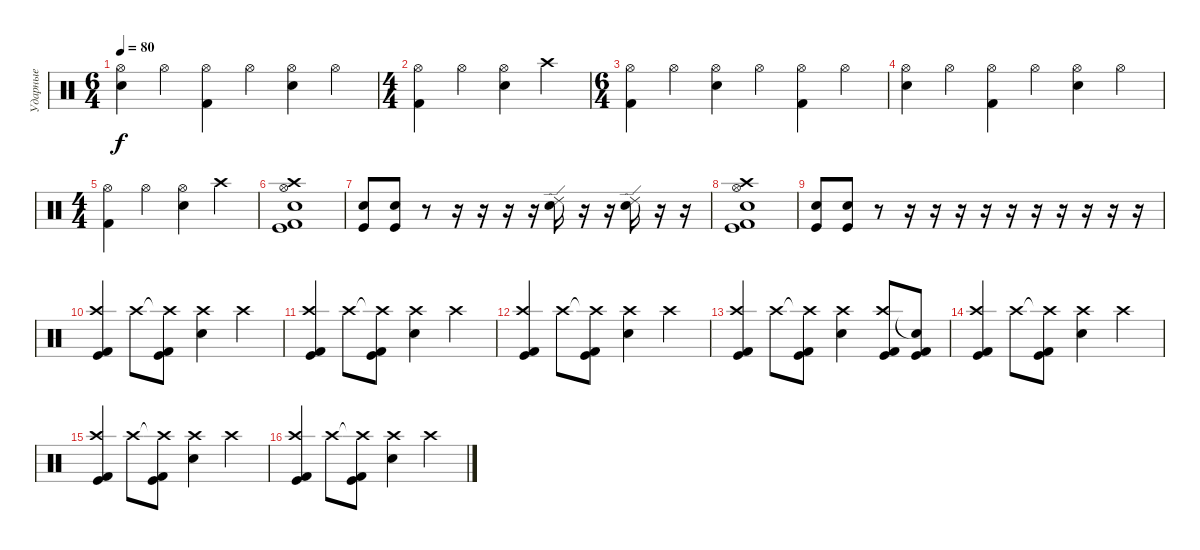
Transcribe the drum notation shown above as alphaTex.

\track ("Ударные" "Ударные") {instrument percussion}
\staff {score}
\articulation defaults
\ts (6 4)
\tempo 80
\clef neutral
\ks c
("Hi-Hat (open)" "Electric Snare (hit)").4{dy f} "Hi-Hat (open)".4 ("Hi-Hat (open)" "Kick (hit) 2").4 "Hi-Hat (open)".4 ("Hi-Hat (open)" "Electric Snare (hit)").4 "Hi-Hat (open)".4 |
\ts (4 4)
("Hi-Hat (open)" "Kick (hit) 2").4 "Hi-Hat (open)".4 ("Hi-Hat (open)" "Electric Snare (hit)").4 "Crash high (hit)".4 |
\ts (6 4)
("Hi-Hat (open)" "Kick (hit) 2").4 "Hi-Hat (open)".4 ("Hi-Hat (open)" "Electric Snare (hit)").4 "Hi-Hat (open)".4 ("Hi-Hat (open)" "Kick (hit) 2").4 "Hi-Hat (open)".4 |
("Hi-Hat (open)" "Electric Snare (hit)").4 "Hi-Hat (open)".4 ("Hi-Hat (open)" "Kick (hit) 2").4 "Hi-Hat (open)".4 ("Hi-Hat (open)" "Electric Snare (hit)").4 "Hi-Hat (open)".4 |
\ts (4 4)
("Hi-Hat (open)" "Kick (hit) 2").4 "Hi-Hat (open)".4 ("Hi-Hat (open)" "Electric Snare (hit)").4 "Crash high (hit)".4 |
("Hi-Hat (open)" "Crash high (hit)" "Electric Snare (hit)" "Kick (hit)" "Kick (hit) 2").1 |
("Snare (hit) 2" "Kick (hit)").8 ("Snare (hit) 2" "Kick (hit)").8 r.8 r.16 r.16 r.16 r.16 ("Ride (edge) 2" "Electric Snare (hit)").16 r.16 r.16 ("Ride (edge) 2" "Electric Snare (hit)").16 r.16 r.16 |
("Hi-Hat (open)" "Crash high (hit)" "Electric Snare (hit)" "Kick (hit)" "Kick (hit) 2").1 |
("Snare (hit) 2" "Kick (hit)").8 ("Snare (hit) 2" "Kick (hit)").8 r.8 r.16 r.16 r.16 r.16 r.16 r.16 r.16 r.16 r.16 r.16 |
("Crash high (hit)" "Kick (hit)" "Kick (hit) 2").4 "Crash high (hit)".8 ("Crash high (hit)"{t} "Kick (hit)" "Kick (hit) 2").8 ("Crash high (hit)" "Electric Snare (hit)").4 "Crash high (hit)".4 |
("Crash high (hit)" "Kick (hit)" "Kick (hit) 2").4 "Crash high (hit)".8 ("Crash high (hit)"{t} "Kick (hit)" "Kick (hit) 2").8 ("Crash high (hit)" "Electric Snare (hit)").4 "Crash high (hit)".4 |
("Crash high (hit)" "Kick (hit)" "Kick (hit) 2").4 "Crash high (hit)".8 ("Crash high (hit)"{t} "Kick (hit)" "Kick (hit) 2").8 ("Crash high (hit)" "Electric Snare (hit)").4 "Crash high (hit)".4 |
("Crash high (hit)" "Kick (hit)" "Kick (hit) 2").4 "Crash high (hit)".8 ("Crash high (hit)"{t} "Kick (hit)" "Kick (hit) 2").8 ("Crash high (hit)" "Electric Snare (hit)").4 ("Crash high (hit)" "Kick (hit)" "Kick (hit) 2").8 ("Snare (hit)"{t} "Kick (hit)" "Kick (hit) 2").8 |
("Crash high (hit)" "Kick (hit)" "Kick (hit) 2").4 "Crash high (hit)".8 ("Crash high (hit)"{t} "Kick (hit)" "Kick (hit) 2").8 ("Crash high (hit)" "Electric Snare (hit)").4 "Crash high (hit)".4 |
("Crash high (hit)" "Kick (hit)" "Kick (hit) 2").4 "Crash high (hit)".8 ("Crash high (hit)"{t} "Kick (hit)" "Kick (hit) 2").8 ("Crash high (hit)" "Electric Snare (hit)").4 "Crash high (hit)".4 |
("Crash high (hit)" "Kick (hit)" "Kick (hit) 2").4 "Crash high (hit)".8 ("Crash high (hit)"{t} "Kick (hit)" "Kick (hit) 2").8 ("Crash high (hit)" "Electric Snare (hit)").4 "Crash high (hit)".4
